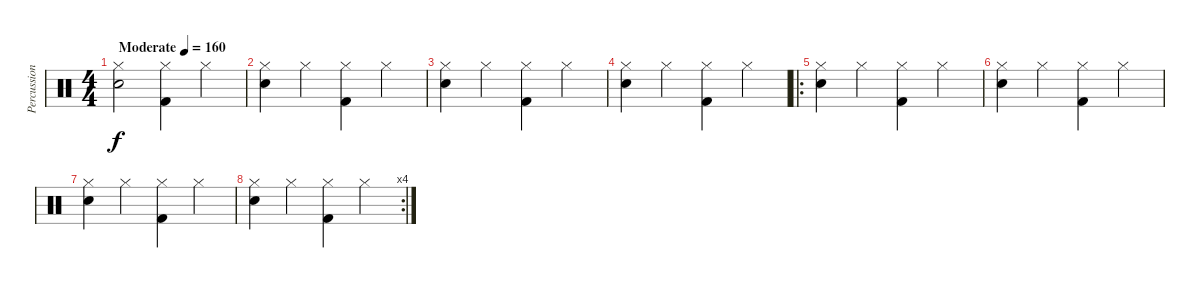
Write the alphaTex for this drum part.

\track ("Percussion" "Percussion") {instrument percussion}
\staff {score}
\articulation defaults
\ts (4 4)
\tempo (160 "Moderate")
\clef neutral
\ks c
("Hi-Hat (closed)" "Electric Snare (hit)").2{dy f} ("Hi-Hat (closed)" "Kick (hit) 2").4 "Hi-Hat (closed)".4 |
("Hi-Hat (closed)" "Electric Snare (hit)").4 "Hi-Hat (closed)".4 ("Hi-Hat (closed)" "Kick (hit) 2").4 "Hi-Hat (closed)".4 |
("Hi-Hat (closed)" "Electric Snare (hit)").4 "Hi-Hat (closed)".4 ("Hi-Hat (closed)" "Kick (hit) 2").4 "Hi-Hat (closed)".4 |
("Hi-Hat (closed)" "Electric Snare (hit)").4 "Hi-Hat (closed)".4 ("Hi-Hat (closed)" "Kick (hit) 2").4 "Hi-Hat (closed)".4 |
\ro
("Hi-Hat (closed)" "Electric Snare (hit)").4 "Hi-Hat (closed)".4 ("Hi-Hat (closed)" "Kick (hit) 2").4 "Hi-Hat (closed)".4 |
("Hi-Hat (closed)" "Electric Snare (hit)").4 "Hi-Hat (closed)".4 ("Hi-Hat (closed)" "Kick (hit) 2").4 "Hi-Hat (closed)".4 |
("Hi-Hat (closed)" "Electric Snare (hit)").4 "Hi-Hat (closed)".4 ("Hi-Hat (closed)" "Kick (hit) 2").4 "Hi-Hat (closed)".4 |
\rc 4
("Hi-Hat (closed)" "Electric Snare (hit)").4 "Hi-Hat (closed)".4 ("Hi-Hat (closed)" "Kick (hit) 2").4 "Hi-Hat (closed)".4
